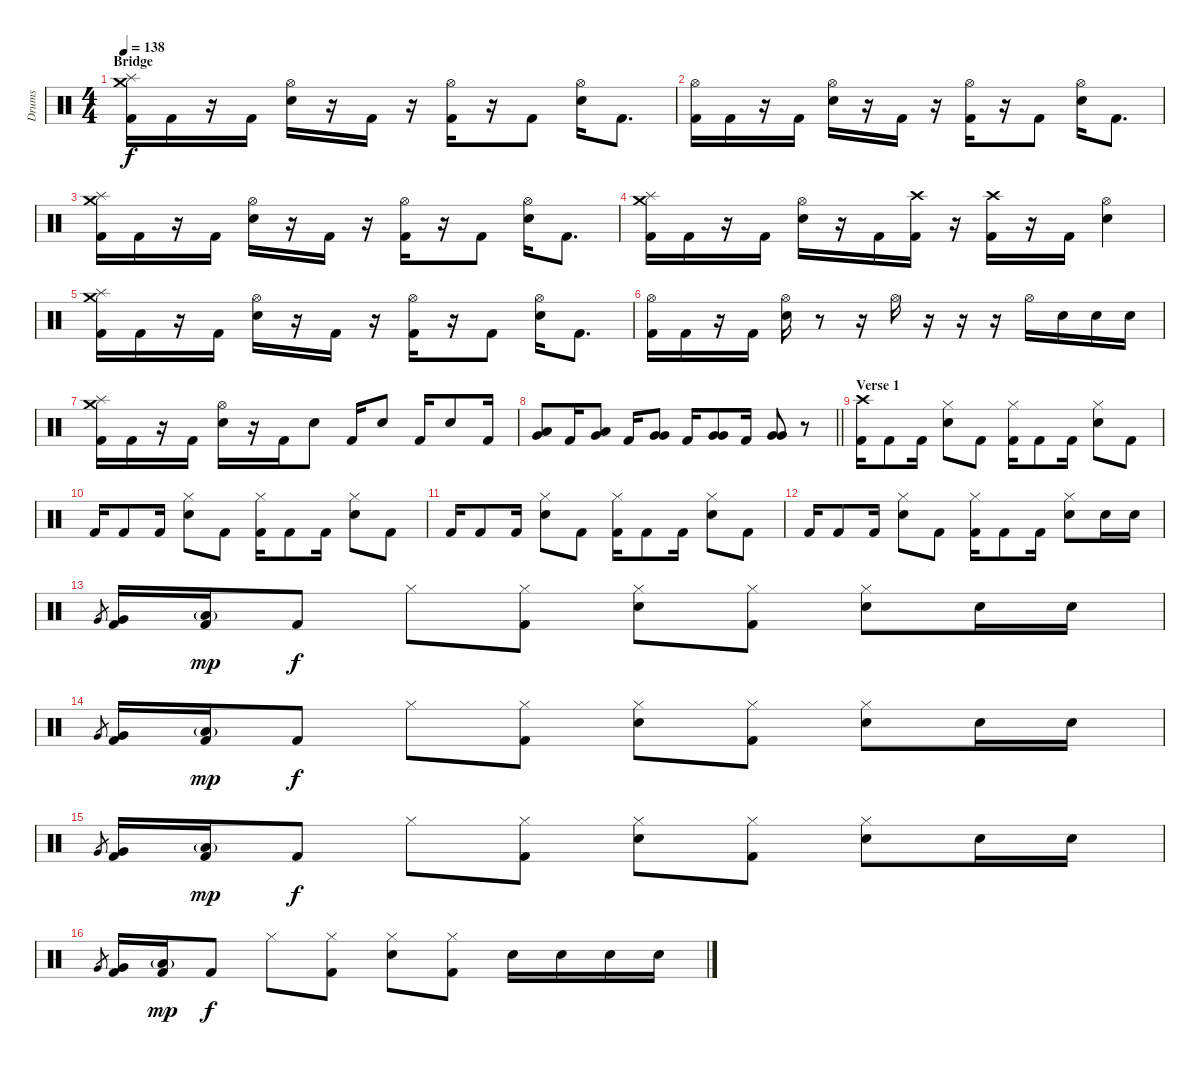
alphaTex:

\track ("Drums" "Drums") {instrument percussion}
\staff {score}
\articulation defaults
\ts (4 4)
\section ("" "Bridge")
\tempo 138
\clef neutral
\ks c
("Crash medium (hit)" "Splash (hit)" "Kick (hit) 2").16{dy f} "Kick (hit) 2".16 r.16 "Kick (hit) 2".16 ("Hi-Hat (open)" "Electric Snare (hit)").16 r.16 "Kick (hit) 2".16 r.16 ("Hi-Hat (open)" "Kick (hit) 2").16 r.16 "Kick (hit) 2".8 ("Hi-Hat (open)" "Electric Snare (hit)").16 "Kick (hit) 2".8{d} |
("Hi-Hat (open)" "Kick (hit) 2").16 "Kick (hit) 2".16 r.16 "Kick (hit) 2".16 ("Hi-Hat (open)" "Electric Snare (hit)").16 r.16 "Kick (hit) 2".16 r.16 ("Hi-Hat (open)" "Kick (hit) 2").16 r.16 "Kick (hit) 2".8 ("Hi-Hat (open)" "Electric Snare (hit)").16 "Kick (hit) 2".8{d} |
("Crash medium (hit)" "Splash (hit)" "Kick (hit) 2").16 "Kick (hit) 2".16 r.16 "Kick (hit) 2".16 ("Hi-Hat (open)" "Electric Snare (hit)").16 r.16 "Kick (hit) 2".16 r.16 ("Hi-Hat (open)" "Kick (hit) 2").16 r.16 "Kick (hit) 2".8 ("Hi-Hat (open)" "Electric Snare (hit)").16 "Kick (hit) 2".8{d} |
("Crash medium (hit)" "Splash (hit)" "Kick (hit) 2").16 "Kick (hit) 2".16 r.16 "Kick (hit) 2".16 ("Hi-Hat (open)" "Electric Snare (hit)").16 r.16 "Kick (hit) 2".16 ("Crash high (hit)" "Kick (hit) 2").16 r.16 ("Crash high (hit)" "Kick (hit) 2").16 r.16 "Kick (hit) 2".16 ("Hi-Hat (open)" "Electric Snare (hit)").4 |
("Crash medium (hit)" "Splash (hit)" "Kick (hit) 2").16 "Kick (hit) 2".16 r.16 "Kick (hit) 2".16 ("Hi-Hat (open)" "Electric Snare (hit)").16 r.16 "Kick (hit) 2".16 r.16 ("Hi-Hat (open)" "Kick (hit) 2").16 r.16 "Kick (hit) 2".8 ("Hi-Hat (open)" "Electric Snare (hit)").16 "Kick (hit) 2".8{d} |
("Hi-Hat (open)" "Kick (hit) 2").16 "Kick (hit) 2".16 r.16 "Kick (hit) 2".16 ("Hi-Hat (open)" "Electric Snare (hit)").16 r.8 r.16 "Hi-Hat (open)".16 r.16 r.16 r.16 "Hi-Hat (open)".16 "Electric Snare (hit)".16 "Electric Snare (hit)".16 "Electric Snare (hit)".16 |
("Crash medium (hit)" "Splash (hit)" "Kick (hit) 2").16 "Kick (hit) 2".16 r.16 "Kick (hit) 2".16 ("Hi-Hat (open)" "Electric Snare (hit)").16 r.16 "Kick (hit) 2".16 "Electric Snare (hit)".8 "Kick (hit) 2".16 "Electric Snare (hit)".8 "Kick (hit) 2".16 "Electric Snare (hit)".8 "Kick (hit) 2".16 |
\barLineRight lightlight
("Low Tom (hit)" "Very Low Tom (hit)").8 "Kick (hit) 2".16 ("Low Tom (hit)" "Very Low Tom (hit)").8 "Kick (hit) 2".16 ("Very Low Tom (hit)" "Very Low Tom (hit)").8 "Kick (hit) 2".16 ("Very Low Tom (hit)" "Very Low Tom (hit)").8 "Kick (hit) 2".16 ("Very Low Tom (hit)" "Very Low Tom (hit)").8 r.8 |
\section ("" "Verse 1")
("Crash high (hit)" "Kick (hit) 2").16 "Kick (hit) 2".8 "Kick (hit) 2".16 ("Electric Snare (hit)" "Hi-Hat (closed)").8 "Kick (hit) 2".8 ("Hi-Hat (closed)" "Kick (hit) 2").16 "Kick (hit) 2".8 "Kick (hit) 2".16 ("Electric Snare (hit)" "Hi-Hat (closed)").8 "Kick (hit) 2".8 |
"Kick (hit) 2".16 "Kick (hit) 2".8 "Kick (hit) 2".16 ("Electric Snare (hit)" "Hi-Hat (closed)").8 "Kick (hit) 2".8 ("Hi-Hat (closed)" "Kick (hit) 2").16 "Kick (hit) 2".8 "Kick (hit) 2".16 ("Electric Snare (hit)" "Hi-Hat (closed)").8 "Kick (hit) 2".8 |
"Kick (hit) 2".16 "Kick (hit) 2".8 "Kick (hit) 2".16 ("Electric Snare (hit)" "Hi-Hat (closed)").8 "Kick (hit) 2".8 ("Hi-Hat (closed)" "Kick (hit) 2").16 "Kick (hit) 2".8 "Kick (hit) 2".16 ("Electric Snare (hit)" "Hi-Hat (closed)").8 "Kick (hit) 2".8 |
"Kick (hit) 2".16 "Kick (hit) 2".8 "Kick (hit) 2".16 ("Electric Snare (hit)" "Hi-Hat (closed)").8 "Kick (hit) 2".8 ("Hi-Hat (closed)" "Kick (hit) 2").16 "Kick (hit) 2".8 "Kick (hit) 2".16 ("Electric Snare (hit)" "Hi-Hat (closed)").8 "Electric Snare (hit)".16 "Electric Snare (hit)".16 |
"Very Low Tom (hit)".8{gr} ("Very Low Tom (hit)" "Kick (hit) 2").16 ("Low Floor Tom (hit)"{g} "Kick (hit) 2").16{dy mp} "Kick (hit) 2".8{dy f} "Hi-Hat (closed)".8 ("Hi-Hat (closed)" "Kick (hit) 2").8 ("Electric Snare (hit)" "Hi-Hat (closed)").8 ("Hi-Hat (closed)" "Kick (hit) 2").8 ("Electric Snare (hit)" "Hi-Hat (closed)").8 "Electric Snare (hit)".16 "Electric Snare (hit)".16 |
"Very Low Tom (hit)".8{gr} ("Very Low Tom (hit)" "Kick (hit) 2").16 ("Low Floor Tom (hit)"{g} "Kick (hit) 2").16{dy mp} "Kick (hit) 2".8{dy f} "Hi-Hat (closed)".8 ("Hi-Hat (closed)" "Kick (hit) 2").8 ("Electric Snare (hit)" "Hi-Hat (closed)").8 ("Hi-Hat (closed)" "Kick (hit) 2").8 ("Electric Snare (hit)" "Hi-Hat (closed)").8 "Electric Snare (hit)".16 "Electric Snare (hit)".16 |
"Very Low Tom (hit)".8{gr} ("Very Low Tom (hit)" "Kick (hit) 2").16 ("Low Floor Tom (hit)"{g} "Kick (hit) 2").16{dy mp} "Kick (hit) 2".8{dy f} "Hi-Hat (closed)".8 ("Hi-Hat (closed)" "Kick (hit) 2").8 ("Electric Snare (hit)" "Hi-Hat (closed)").8 ("Hi-Hat (closed)" "Kick (hit) 2").8 ("Electric Snare (hit)" "Hi-Hat (closed)").8 "Electric Snare (hit)".16 "Electric Snare (hit)".16 |
"Very Low Tom (hit)".8{gr} ("Very Low Tom (hit)" "Kick (hit) 2").16 ("Low Floor Tom (hit)"{g} "Kick (hit) 2").16{dy mp} "Kick (hit) 2".8{dy f} "Hi-Hat (closed)".8 ("Hi-Hat (closed)" "Kick (hit) 2").8 ("Electric Snare (hit)" "Hi-Hat (closed)").8 ("Hi-Hat (closed)" "Kick (hit) 2").8 "Electric Snare (hit)".16 "Electric Snare (hit)".16 "Electric Snare (hit)".16 "Electric Snare (hit)".16
